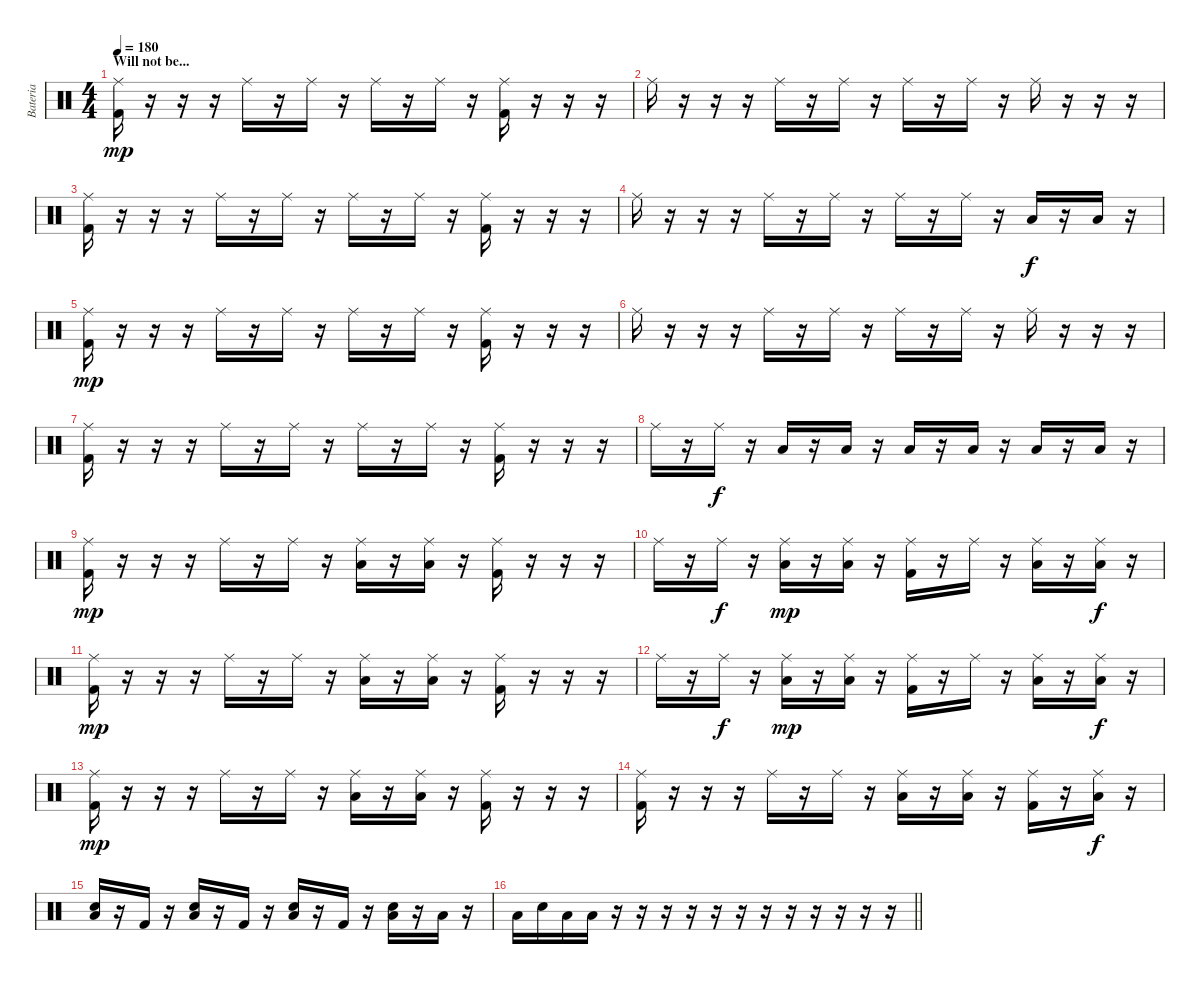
\track ("Bateria" "Bateria") {instrument percussion}
\staff {score}
\articulation defaults
\ts (4 4)
\section ("" "Will not be...")
\tempo 180
\clef neutral
\ks c
("Ride (middle)" "Kick (hit) 2").16{dy mp} r.16 r.16 r.16 "Ride (middle)".16 r.16 "Ride (middle)".16 r.16 "Ride (middle)".16 r.16 "Ride (middle)".16 r.16 ("Ride (middle)" "Kick (hit) 2").16 r.16 r.16 r.16 |
"Ride (middle)".16 r.16 r.16 r.16 "Ride (middle)".16 r.16 "Ride (middle)".16 r.16 "Ride (middle)".16 r.16 "Ride (middle)".16 r.16 "Ride (middle)".16 r.16 r.16 r.16 |
("Ride (middle)" "Kick (hit) 2").16 r.16 r.16 r.16 "Ride (middle)".16 r.16 "Ride (middle)".16 r.16 "Ride (middle)".16 r.16 "Ride (middle)".16 r.16 ("Ride (middle)" "Kick (hit) 2").16 r.16 r.16 r.16 |
"Ride (middle)".16 r.16 r.16 r.16 "Ride (middle)".16 r.16 "Ride (middle)".16 r.16 "Ride (middle)".16 r.16 "Ride (middle)".16 r.16 "Low Tom (hit)".16{dy f} r.16 "Low Floor Tom (hit)".16 r.16 |
("Ride (middle)" "Kick (hit) 2").16{dy mp} r.16 r.16 r.16 "Ride (middle)".16 r.16 "Ride (middle)".16 r.16 "Ride (middle)".16 r.16 "Ride (middle)".16 r.16 ("Ride (middle)" "Kick (hit) 2").16 r.16 r.16 r.16 |
"Ride (middle)".16 r.16 r.16 r.16 "Ride (middle)".16 r.16 "Ride (middle)".16 r.16 "Ride (middle)".16 r.16 "Ride (middle)".16 r.16 "Ride (middle)".16 r.16 r.16 r.16 |
("Ride (middle)" "Kick (hit) 2").16 r.16 r.16 r.16 "Ride (middle)".16 r.16 "Ride (middle)".16 r.16 "Ride (middle)".16 r.16 "Ride (middle)".16 r.16 ("Ride (middle)" "Kick (hit) 2").16 r.16 r.16 r.16 |
"Ride (middle)".16 r.16 "Ride (middle)".16{dy f} r.16 "Low Floor Tom (hit)".16 r.16 "Low Tom (hit)".16 r.16 "Low Floor Tom (hit)".16 r.16 "Low Tom (hit)".16 r.16 "Low Tom (hit)".16 r.16 "Low Floor Tom (hit)".16 r.16 |
("Ride (middle)" "Kick (hit) 2").16{dy mp} r.16 r.16 r.16 "Ride (middle)".16 r.16 "Ride (middle)".16 r.16 ("Ride (middle)" "Low Floor Tom (hit)").16 r.16 ("Ride (middle)" "Low Floor Tom (hit)").16 r.16 ("Ride (middle)" "Kick (hit) 2").16 r.16 r.16 r.16 |
"Ride (middle)".16 r.16 "Ride (middle)".16{dy f} r.16 ("Ride (middle)" "Low Floor Tom (hit)").16{dy mp} r.16 ("Ride (middle)" "Low Floor Tom (hit)").16 r.16 ("Ride (middle)" "Kick (hit) 2").16 r.16 "Ride (middle)".16 r.16 ("Ride (middle)" "Low Floor Tom (hit)").16 r.16 ("Ride (middle)" "Low Floor Tom (hit)").16{dy f} r.16 |
("Ride (middle)" "Kick (hit) 2").16{dy mp} r.16 r.16 r.16 "Ride (middle)".16 r.16 "Ride (middle)".16 r.16 ("Ride (middle)" "Low Floor Tom (hit)").16 r.16 ("Ride (middle)" "Low Floor Tom (hit)").16 r.16 ("Ride (middle)" "Kick (hit) 2").16 r.16 r.16 r.16 |
"Ride (middle)".16 r.16 "Ride (middle)".16{dy f} r.16 ("Ride (middle)" "Low Floor Tom (hit)").16{dy mp} r.16 ("Ride (middle)" "Low Floor Tom (hit)").16 r.16 ("Ride (middle)" "Kick (hit) 2").16 r.16 "Ride (middle)".16 r.16 ("Ride (middle)" "Low Floor Tom (hit)").16 r.16 ("Ride (middle)" "Low Floor Tom (hit)").16{dy f} r.16 |
("Ride (middle)" "Kick (hit) 2").16{dy mp} r.16 r.16 r.16 "Ride (middle)".16 r.16 "Ride (middle)".16 r.16 ("Ride (middle)" "Low Floor Tom (hit)").16 r.16 ("Ride (middle)" "Low Floor Tom (hit)").16 r.16 ("Ride (middle)" "Kick (hit) 2").16 r.16 r.16 r.16 |
("Ride (middle)" "Kick (hit) 2").16 r.16 r.16 r.16 "Ride (middle)".16 r.16 "Ride (middle)".16 r.16 ("Ride (middle)" "Low Floor Tom (hit)").16 r.16 ("Ride (middle)" "Low Floor Tom (hit)").16 r.16 ("Ride (middle)" "Kick (hit) 2").16 r.16 ("Ride (middle)" "Low Floor Tom (hit)").16{dy f} r.16 |
("Snare (hit) 2" "Low Floor Tom (hit)").16 r.16 "Kick (hit) 2".16 r.16 ("Snare (hit) 2" "Low Floor Tom (hit)").16 r.16 "Kick (hit) 2".16 r.16 ("Snare (hit) 2" "Low Floor Tom (hit)").16 r.16 "Kick (hit) 2".16 r.16 ("Snare (hit) 2" "Low Floor Tom (hit)").16 r.16 "Low Tom (hit)".16 r.16 |
\barLineRight lightlight "Low Floor Tom (hit)".16 "Snare (hit) 2".16 "Low Tom (hit)".16 "Low Tom (hit)".16
r.16 r.16 r.16 r.16 r.16 r.16 r.16 r.16 r.16 r.16 r.16 r.16
